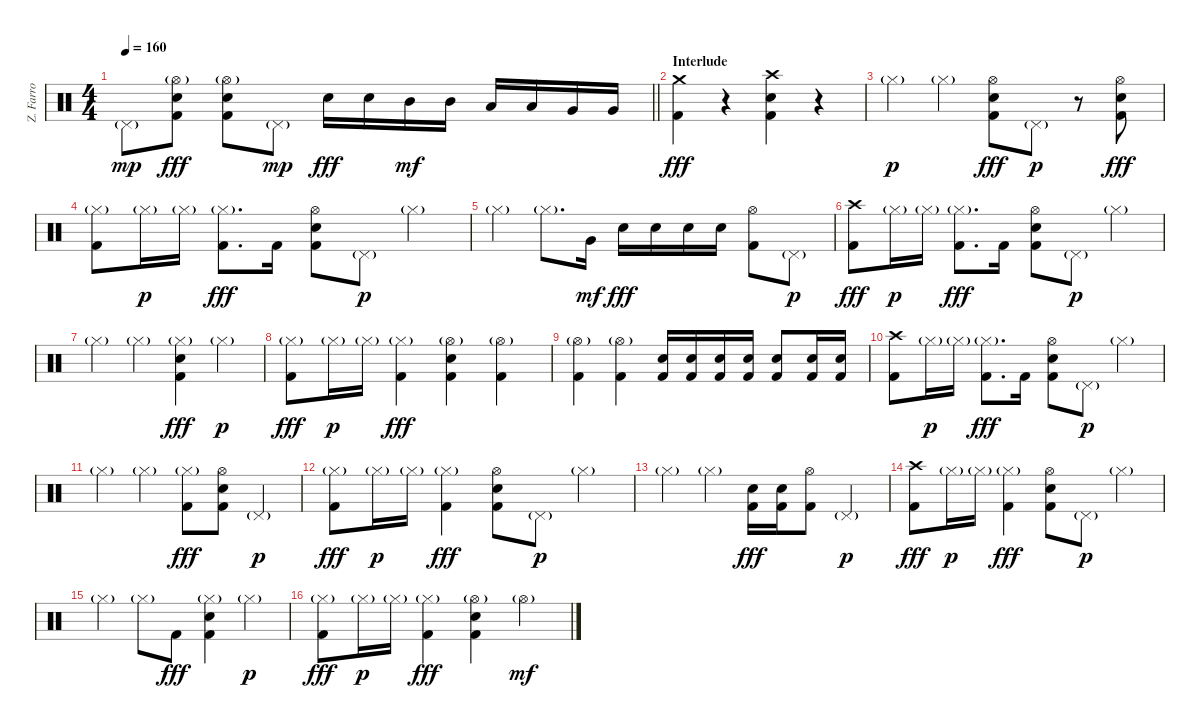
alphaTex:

\track ("Z. Farro" "Z. Farro") {instrument percussion}
\staff {score}
\articulation defaults
\ts (4 4)
\tempo 160
\clef neutral
\barLineRight lightlight
\ks c "Pedal Hi-Hat (hit)"{g}.8{dy mp}
("Hi-Hat (open)"{g} "Electric Snare (hit)" "Kick (hit) 2").8{dy fff} ("Hi-Hat (open)"{g} "Electric Snare (hit)" "Kick (hit) 2").8 "Pedal Hi-Hat (hit)"{g}.8{dy mp} "Electric Snare (hit)".16{dy fff} "Electric Snare (hit)".16 "Mid Tom (hit)".16{dy mf} "Mid Tom (hit)".16 "Low Tom (hit)".16 "Low Tom (hit)".16 "Very Low Tom (hit)".16 "Very Low Tom (hit)".16 |
\section ("" "Interlude")
("Crash medium (hit)" "Kick (hit) 2").4{dy fff} r.4 ("Crash high (hit)" "Electric Snare (hit)" "Kick (hit) 2").4 r.4 |
"Hi-Hat (closed)"{g}.4{dy p} "Hi-Hat (closed)"{g}.4 ("Hi-Hat (open)" "Electric Snare (hit)" "Kick (hit) 2").8{dy fff} "Pedal Hi-Hat (hit)"{g}.8{dy p} r.8 ("Hi-Hat (open)" "Electric Snare (hit)" "Kick (hit) 2").8{dy fff} |
("Hi-Hat (closed)"{g} "Kick (hit) 2").8 "Hi-Hat (closed)"{g}.16{dy p} "Hi-Hat (closed)"{g}.16 ("Hi-Hat (closed)"{g} "Kick (hit) 2").8{d dy fff} "Kick (hit) 2".16 ("Hi-Hat (open)" "Electric Snare (hit)" "Kick (hit) 2").8 "Pedal Hi-Hat (hit)"{g}.8{dy p} "Hi-Hat (closed)"{g}.4 |
"Hi-Hat (closed)"{g}.4 "Hi-Hat (closed)"{g}.8{d} "Very Low Tom (hit)".16{dy mf balance 16} "Electric Snare (hit)".16{dy fff balance 8} "Electric Snare (hit)".16 "Electric Snare (hit)".16 "Electric Snare (hit)".16 ("Hi-Hat (open)" "Kick (hit) 2").8 "Pedal Hi-Hat (hit)"{g}.8{dy p} |
("Crash high (hit)" "Kick (hit) 2").8{dy fff} "Hi-Hat (closed)"{g}.16{dy p} "Hi-Hat (closed)"{g}.16 ("Hi-Hat (closed)"{g} "Kick (hit) 2").8{d dy fff} "Kick (hit) 2".16 ("Hi-Hat (open)" "Electric Snare (hit)" "Kick (hit) 2").8 "Pedal Hi-Hat (hit)"{g}.8{dy p} "Hi-Hat (closed)"{g}.4 |
"Hi-Hat (closed)"{g}.4 "Hi-Hat (closed)"{g}.4 ("Hi-Hat (closed)"{g} "Electric Snare (hit)" "Kick (hit) 2").4{dy fff} "Hi-Hat (closed)"{g}.4{dy p} |
("Hi-Hat (closed)"{g} "Kick (hit) 2").8{dy fff} "Hi-Hat (closed)"{g}.16{dy p} "Hi-Hat (closed)"{g}.16 ("Hi-Hat (closed)"{g} "Kick (hit) 2").4{dy fff} ("Hi-Hat (open)"{g} "Electric Snare (hit)" "Kick (hit) 2").4 ("Hi-Hat (open)"{g} "Kick (hit) 2").4 |
("Hi-Hat (open)"{g} "Kick (hit) 2").4 ("Hi-Hat (open)"{g} "Kick (hit) 2").4 ("Electric Snare (hit)" "Kick (hit) 2").16 ("Electric Snare (hit)" "Kick (hit) 2").16 ("Electric Snare (hit)" "Kick (hit) 2").16 ("Electric Snare (hit)" "Kick (hit) 2").16 ("Electric Snare (hit)" "Kick (hit) 2").8 ("Electric Snare (hit)" "Kick (hit) 2").16 ("Electric Snare (hit)" "Kick (hit) 2").16 |
("Crash high (hit)" "Kick (hit) 2").8 "Hi-Hat (closed)"{g}.16{dy p} "Hi-Hat (closed)"{g}.16 ("Hi-Hat (closed)"{g} "Kick (hit) 2").8{d dy fff} "Kick (hit) 2".16 ("Hi-Hat (open)" "Electric Snare (hit)" "Kick (hit) 2").8 "Pedal Hi-Hat (hit)"{g}.8{dy p} "Hi-Hat (closed)"{g}.4 |
"Hi-Hat (closed)"{g}.4 "Hi-Hat (closed)"{g}.4 ("Hi-Hat (closed)"{g} "Kick (hit) 2").8{dy fff} ("Hi-Hat (open)" "Electric Snare (hit)" "Kick (hit) 2").8 "Pedal Hi-Hat (hit)"{g}.4{dy p} |
("Hi-Hat (closed)"{g} "Kick (hit) 2").8{dy fff} "Hi-Hat (closed)"{g}.16{dy p} "Hi-Hat (closed)"{g}.16 ("Hi-Hat (closed)"{g} "Kick (hit) 2").4{dy fff} ("Hi-Hat (open)" "Electric Snare (hit)" "Kick (hit) 2").8 "Pedal Hi-Hat (hit)"{g}.8{dy p} "Hi-Hat (closed)"{g}.4 |
"Hi-Hat (closed)"{g}.4 "Hi-Hat (closed)"{g}.4 ("Electric Snare (hit)" "Kick (hit) 2").16{dy fff} ("Electric Snare (hit)" "Kick (hit) 2").16 ("Hi-Hat (open)" "Kick (hit) 2").8 "Pedal Hi-Hat (hit)"{g}.4{dy p} |
("Crash high (hit)" "Kick (hit) 2").8{dy fff} "Hi-Hat (closed)"{g}.16{dy p} "Hi-Hat (closed)"{g}.16 ("Hi-Hat (closed)"{g} "Kick (hit) 2").4{dy fff} ("Hi-Hat (open)" "Electric Snare (hit)" "Kick (hit) 2").8 "Pedal Hi-Hat (hit)"{g}.8{dy p} "Hi-Hat (closed)"{g}.4 |
"Hi-Hat (closed)"{g}.4 "Hi-Hat (closed)"{g}.8 "Kick (hit) 2".8{dy fff} ("Hi-Hat (closed)"{g} "Electric Snare (hit)" "Kick (hit) 2").4 "Hi-Hat (closed)"{g}.4{dy p} |
("Hi-Hat (closed)"{g} "Kick (hit) 2").8{dy fff} "Hi-Hat (closed)"{g}.16{dy p} "Hi-Hat (closed)"{g}.16 ("Hi-Hat (closed)"{g} "Kick (hit) 2").4{dy fff} ("Hi-Hat (open)"{g} "Electric Snare (hit)" "Kick (hit) 2").4 "Hi-Hat (open)"{g}.4{dy mf}
